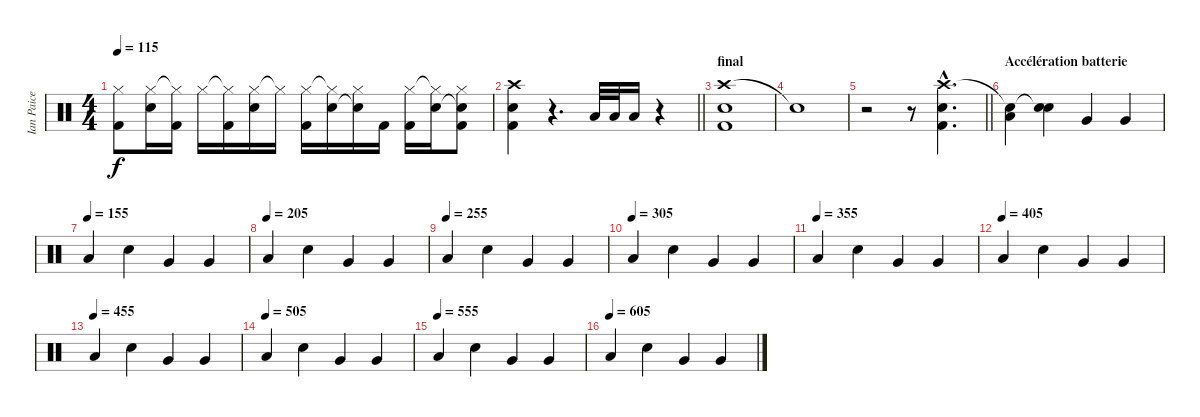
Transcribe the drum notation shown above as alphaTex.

\track ("Ian Paice" "Ian Paice") {instrument percussion}
\staff {score}
\articulation defaults
\ts (4 4)
\tempo 115
\clef neutral
\ks c
("Hi-Hat (closed)" "Kick (hit) 2").8{dy f} ("Hi-Hat (closed)" "Snare (hit) 2").16 ("Hi-Hat (closed)"{t} "Kick (hit) 2").16 "Hi-Hat (closed)".16 ("Hi-Hat (closed)"{t} "Kick (hit) 2").16 ("Hi-Hat (closed)" "Snare (hit) 2").16 "Hi-Hat (closed)"{t}.16 ("Hi-Hat (closed)" "Kick (hit) 2").16 ("Hi-Hat (closed)"{t} "Snare (hit) 2").16 ("Hi-Hat (closed)" "Snare (hit) 2"{t}).16 "Kick (hit) 2".16 ("Hi-Hat (closed)" "Kick (hit) 2").16 ("Hi-Hat (closed)"{t} "Snare (hit) 2").16 ("Hi-Hat (closed)" "Snare (hit) 2"{t} "Kick (hit) 2").8 |
\barLineRight lightlight
("Crash high (hit)" "Snare (hit) 2" "Kick (hit) 2").4 r.4{d} "Low Floor Tom (hit)".32 "Low Floor Tom (hit)".32 "Low Floor Tom (hit)".16 r.4 |
\section ("" "final")
("Crash high (hit)" "Snare (hit) 2" "Kick (hit) 2").1 |
"Snare (hit)"{t}.1 |
\barLineRight lightlight
r.2 r.8 ("Crash high (hit)"{hac} "Snare (hit) 2"{hac} "Kick (hit) 2"{hac}).4{d} |
\section ("" "Accélération batterie")
("Snare (hit)"{t} "Low Floor Tom (hit)").4 ("Snare (hit)"{t} "Snare (hit) 2").4 "Very Low Tom (hit)".4 "Very Low Tom (hit)".4 |
\tempo (155)
"Low Floor Tom (hit)".4 "Snare (hit) 2".4 "Very Low Tom (hit)".4 "Very Low Tom (hit)".4 |
\tempo (205)
"Low Floor Tom (hit)".4 "Snare (hit) 2".4 "Very Low Tom (hit)".4 "Very Low Tom (hit)".4 |
\tempo (255)
"Low Floor Tom (hit)".4 "Snare (hit) 2".4 "Very Low Tom (hit)".4 "Very Low Tom (hit)".4 |
\tempo (305)
"Low Floor Tom (hit)".4 "Snare (hit) 2".4 "Very Low Tom (hit)".4 "Very Low Tom (hit)".4 |
\tempo (355)
"Low Floor Tom (hit)".4 "Snare (hit) 2".4 "Very Low Tom (hit)".4 "Very Low Tom (hit)".4 |
\tempo (405)
"Low Floor Tom (hit)".4 "Snare (hit) 2".4 "Very Low Tom (hit)".4 "Very Low Tom (hit)".4 |
\tempo (455)
"Low Floor Tom (hit)".4 "Snare (hit) 2".4 "Very Low Tom (hit)".4 "Very Low Tom (hit)".4 |
\tempo (505)
"Low Floor Tom (hit)".4 "Snare (hit) 2".4 "Very Low Tom (hit)".4 "Very Low Tom (hit)".4 |
\tempo (555)
"Low Floor Tom (hit)".4 "Snare (hit) 2".4 "Very Low Tom (hit)".4 "Very Low Tom (hit)".4 |
\tempo (605)
"Low Floor Tom (hit)".4 "Snare (hit) 2".4 "Very Low Tom (hit)".4 "Very Low Tom (hit)".4
